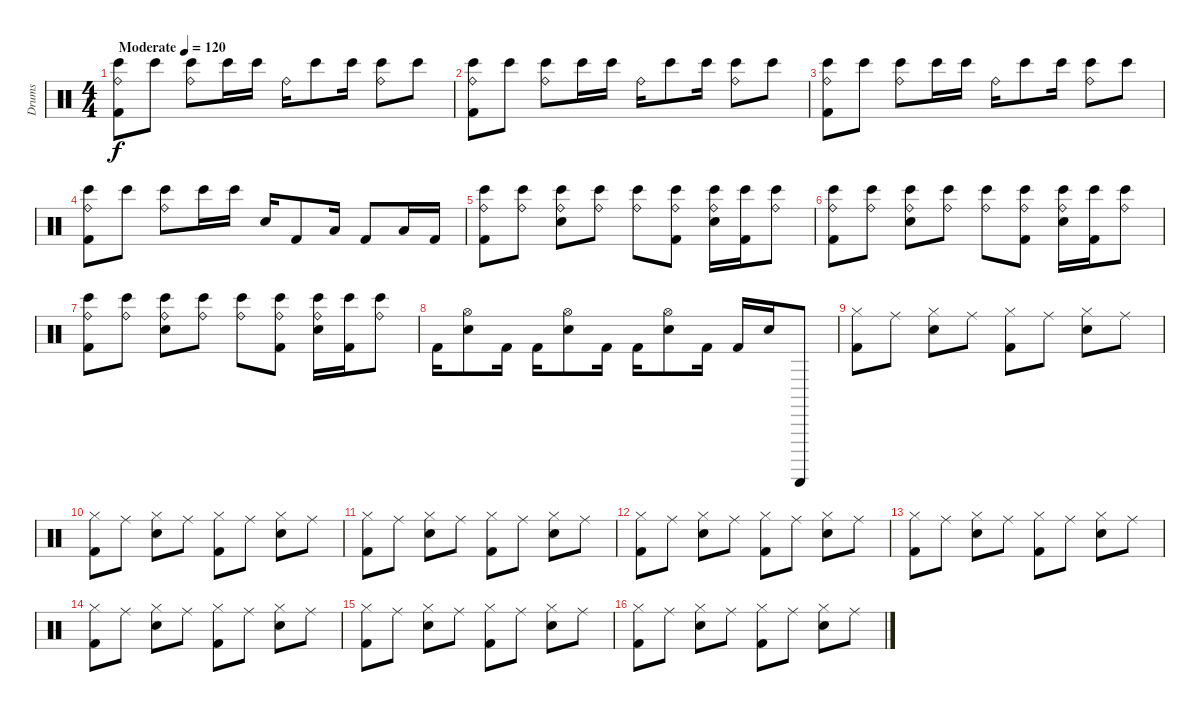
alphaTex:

\track ("Drums" "Drums") {instrument percussion}
\staff {score}
\articulation defaults
\ts (4 4)
\tempo (120 "Moderate")
\clef neutral
\ks c
("Ride (bell)" "Bongo High (hit)" "Kick (hit) 2").8{dy f} "Bongo High (hit)".8 ("Ride (bell)" "Bongo High (hit)").8 "Bongo High (hit)".16 "Bongo High (hit)".16 "Ride (bell)".16 "Bongo High (hit)".8 "Bongo High (hit)".16 ("Ride (bell)" "Bongo High (hit)").8 "Bongo High (hit)".8 |
("Ride (bell)" "Bongo High (hit)" "Kick (hit) 2").8 "Bongo High (hit)".8 ("Ride (bell)" "Bongo High (hit)").8 "Bongo High (hit)".16 "Bongo High (hit)".16 "Ride (bell)".16 "Bongo High (hit)".8 "Bongo High (hit)".16 ("Ride (bell)" "Bongo High (hit)").8 "Bongo High (hit)".8 |
("Ride (bell)" "Bongo High (hit)" "Kick (hit) 2").8 "Bongo High (hit)".8 ("Ride (bell)" "Bongo High (hit)").8 "Bongo High (hit)".16 "Bongo High (hit)".16 "Ride (bell)".16 "Bongo High (hit)".8 "Bongo High (hit)".16 ("Ride (bell)" "Bongo High (hit)").8 "Bongo High (hit)".8 |
("Ride (bell)" "Bongo High (hit)" "Kick (hit) 2").8 "Bongo High (hit)".8 ("Ride (bell)" "Bongo High (hit)").8 "Bongo High (hit)".16 "Bongo High (hit)".16 "Snare (hit) 2".16 "Kick (hit) 2".8 "Low Tom (hit)".16 "Kick (hit) 2".8 "Low Tom (hit)".16 "Kick (hit) 2".16 |
("Ride (bell)" "Bongo High (hit)" "Kick (hit) 2").8 ("Ride (bell)" "Bongo High (hit)").8 ("Ride (bell)" "Bongo High (hit)" "Electric Snare (hit)").8 ("Ride (bell)" "Bongo High (hit)").8 ("Ride (bell)" "Bongo High (hit)").8 ("Ride (bell)" "Bongo High (hit)" "Kick (hit) 2").8 ("Ride (bell)" "Bongo High (hit)" "Electric Snare (hit)").16 ("Bongo High (hit)" "Kick (hit) 2").16 ("Ride (bell)" "Bongo High (hit)").8 |
("Ride (bell)" "Bongo High (hit)" "Kick (hit) 2").8 ("Ride (bell)" "Bongo High (hit)").8 ("Ride (bell)" "Bongo High (hit)" "Electric Snare (hit)").8 ("Ride (bell)" "Bongo High (hit)").8 ("Ride (bell)" "Bongo High (hit)").8 ("Ride (bell)" "Bongo High (hit)" "Kick (hit) 2").8 ("Ride (bell)" "Bongo High (hit)" "Electric Snare (hit)").16 ("Bongo High (hit)" "Kick (hit) 2").16 ("Ride (bell)" "Bongo High (hit)").8 |
("Ride (bell)" "Bongo High (hit)" "Kick (hit) 2").8 ("Ride (bell)" "Bongo High (hit)").8 ("Ride (bell)" "Bongo High (hit)" "Electric Snare (hit)").8 ("Ride (bell)" "Bongo High (hit)").8 ("Ride (bell)" "Bongo High (hit)").8 ("Ride (bell)" "Bongo High (hit)" "Kick (hit) 2").8 ("Ride (bell)" "Bongo High (hit)" "Electric Snare (hit)").16 ("Bongo High (hit)" "Kick (hit) 2").16 ("Ride (bell)" "Bongo High (hit)").8 |
"Kick (hit) 2".16 ("Hi-Hat (open)" "Electric Snare (hit)").8 "Kick (hit) 2".16 "Kick (hit) 2".16 ("Hi-Hat (open)" "Electric Snare (hit)").8 "Kick (hit) 2".16 "Kick (hit) 2".16 ("Hi-Hat (open)" "Electric Snare (hit)").8 "Kick (hit) 2".16 "Kick (hit) 2".16 "Electric Snare (hit)".16 "Guiro (scrap-return)".8 |
("Hi-Hat (closed)" "Kick (hit) 2").8 "Ride (middle)".8 ("Hi-Hat (closed)" "Electric Snare (hit)").8 "Ride (middle)".8 ("Hi-Hat (closed)" "Kick (hit) 2").8 "Ride (middle)".8 ("Hi-Hat (closed)" "Electric Snare (hit)").8 "Ride (middle)".8 |
("Hi-Hat (closed)" "Kick (hit) 2").8 "Ride (middle)".8 ("Hi-Hat (closed)" "Electric Snare (hit)").8 "Ride (middle)".8 ("Hi-Hat (closed)" "Kick (hit) 2").8 "Ride (middle)".8 ("Hi-Hat (closed)" "Electric Snare (hit)").8 "Ride (middle)".8 |
("Hi-Hat (closed)" "Kick (hit) 2").8 "Ride (middle)".8 ("Hi-Hat (closed)" "Electric Snare (hit)").8 "Ride (middle)".8 ("Hi-Hat (closed)" "Kick (hit) 2").8 "Ride (middle)".8 ("Hi-Hat (closed)" "Electric Snare (hit)").8 "Ride (middle)".8 |
("Hi-Hat (closed)" "Kick (hit) 2").8 "Ride (middle)".8 ("Hi-Hat (closed)" "Electric Snare (hit)").8 "Ride (middle)".8 ("Hi-Hat (closed)" "Kick (hit) 2").8 "Ride (middle)".8 ("Hi-Hat (closed)" "Electric Snare (hit)").8 "Ride (middle)".8 |
("Hi-Hat (closed)" "Kick (hit) 2").8 "Ride (middle)".8 ("Hi-Hat (closed)" "Electric Snare (hit)").8 "Ride (middle)".8 ("Hi-Hat (closed)" "Kick (hit) 2").8 "Ride (middle)".8 ("Hi-Hat (closed)" "Electric Snare (hit)").8 "Ride (middle)".8 |
("Hi-Hat (closed)" "Kick (hit) 2").8 "Ride (middle)".8 ("Hi-Hat (closed)" "Electric Snare (hit)").8 "Ride (middle)".8 ("Hi-Hat (closed)" "Kick (hit) 2").8 "Ride (middle)".8 ("Hi-Hat (closed)" "Electric Snare (hit)").8 "Ride (middle)".8 |
("Hi-Hat (closed)" "Kick (hit) 2").8 "Ride (middle)".8 ("Hi-Hat (closed)" "Electric Snare (hit)").8 "Ride (middle)".8 ("Hi-Hat (closed)" "Kick (hit) 2").8 "Ride (middle)".8 ("Hi-Hat (closed)" "Electric Snare (hit)").8 "Ride (middle)".8 |
("Hi-Hat (closed)" "Kick (hit) 2").8 "Ride (middle)".8 ("Hi-Hat (closed)" "Electric Snare (hit)").8 "Ride (middle)".8 ("Hi-Hat (closed)" "Kick (hit) 2").8 "Ride (middle)".8 ("Hi-Hat (closed)" "Electric Snare (hit)").8 "Ride (middle)".8
